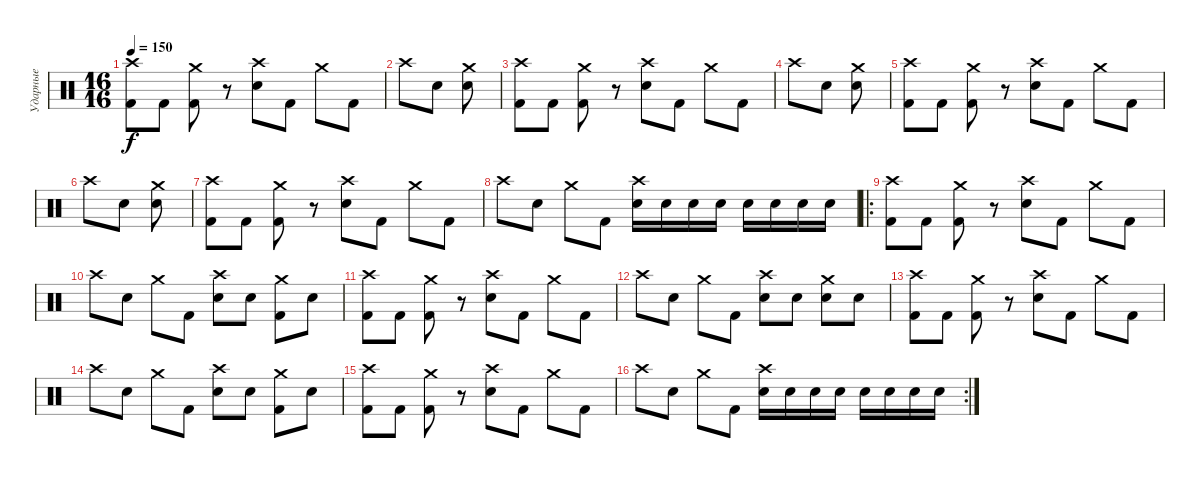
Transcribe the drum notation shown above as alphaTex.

\track ("Ударные" "Ударные") {instrument percussion}
\staff {score}
\articulation defaults
\ts (16 16)
\tempo 150
\clef neutral
\ks c
("Crash high (hit)" "Kick (hit) 2").8{dy f} "Kick (hit) 2".8 ("Crash medium (hit)" "Kick (hit) 2").8 r.8 ("Crash high (hit)" "Electric Snare (hit)").8 "Kick (hit) 2".8 "Crash medium (hit)".8 "Kick (hit) 2".8 |
"Crash high (hit)".8 "Snare (hit) 2".8 ("Crash medium (hit)" "Electric Snare (hit)").8 |
("Crash high (hit)" "Kick (hit) 2").8 "Kick (hit) 2".8 ("Crash medium (hit)" "Kick (hit) 2").8 r.8 ("Crash high (hit)" "Electric Snare (hit)").8 "Kick (hit) 2".8 "Crash medium (hit)".8 "Kick (hit) 2".8 |
"Crash high (hit)".8 "Snare (hit) 2".8 ("Crash medium (hit)" "Electric Snare (hit)").8 |
("Crash high (hit)" "Kick (hit) 2").8 "Kick (hit) 2".8 ("Crash medium (hit)" "Kick (hit) 2").8 r.8 ("Crash high (hit)" "Electric Snare (hit)").8 "Kick (hit) 2".8 "Crash medium (hit)".8 "Kick (hit) 2".8 |
"Crash high (hit)".8 "Snare (hit) 2".8 ("Crash medium (hit)" "Electric Snare (hit)").8 |
("Crash high (hit)" "Kick (hit) 2").8 "Kick (hit) 2".8 ("Crash medium (hit)" "Kick (hit) 2").8 r.8 ("Crash high (hit)" "Electric Snare (hit)").8 "Kick (hit) 2".8 "Crash medium (hit)".8 "Kick (hit) 2".8 |
"Crash high (hit)".8 "Electric Snare (hit)".8 "Crash medium (hit)".8 "Kick (hit) 2".8 ("Crash high (hit)" "Electric Snare (hit)").16 "Electric Snare (hit)".16 "Electric Snare (hit)".16 "Electric Snare (hit)".16 "Electric Snare (hit)".16 "Electric Snare (hit)".16 "Electric Snare (hit)".16 "Electric Snare (hit)".16 |
\ro
("Crash high (hit)" "Kick (hit) 2").8{volume 15} "Kick (hit) 2".8 ("Crash medium (hit)" "Kick (hit) 2").8 r.8 ("Crash high (hit)" "Electric Snare (hit)").8 "Kick (hit) 2".8 "Crash medium (hit)".8 "Kick (hit) 2".8 |
"Crash high (hit)".8 "Snare (hit) 2".8 "Crash medium (hit)".8 "Kick (hit) 2".8 ("Crash high (hit)" "Electric Snare (hit)").8 "Snare (hit) 2".8 ("Crash medium (hit)" "Kick (hit) 2").8 "Electric Snare (hit)".8 |
("Crash high (hit)" "Kick (hit) 2").8 "Kick (hit) 2".8 ("Crash medium (hit)" "Kick (hit) 2").8 r.8 ("Crash high (hit)" "Electric Snare (hit)").8 "Kick (hit) 2".8 "Crash medium (hit)".8 "Kick (hit) 2".8 |
"Crash high (hit)".8 "Electric Snare (hit)".8 "Crash medium (hit)".8 "Kick (hit) 2".8 ("Crash high (hit)" "Electric Snare (hit)").8 "Electric Snare (hit)".8 ("Crash medium (hit)" "Electric Snare (hit)").8 "Electric Snare (hit)".8 |
("Crash high (hit)" "Kick (hit) 2").8 "Kick (hit) 2".8 ("Crash medium (hit)" "Kick (hit) 2").8 r.8 ("Crash high (hit)" "Electric Snare (hit)").8 "Kick (hit) 2".8 "Crash medium (hit)".8 "Kick (hit) 2".8 |
"Crash high (hit)".8 "Snare (hit) 2".8 "Crash medium (hit)".8 "Kick (hit) 2".8 ("Crash high (hit)" "Electric Snare (hit)").8 "Snare (hit) 2".8 ("Crash medium (hit)" "Kick (hit) 2").8 "Electric Snare (hit)".8 |
("Crash high (hit)" "Kick (hit) 2").8 "Kick (hit) 2".8 ("Crash medium (hit)" "Kick (hit) 2").8 r.8 ("Crash high (hit)" "Electric Snare (hit)").8 "Kick (hit) 2".8 "Crash medium (hit)".8 "Kick (hit) 2".8 |
\rc 2 "Crash high (hit)".8 "Electric Snare (hit)".8 "Crash medium (hit)".8 "Kick (hit) 2".8
("Crash high (hit)" "Electric Snare (hit)").16 "Electric Snare (hit)".16 "Electric Snare (hit)".16 "Electric Snare (hit)".16 "Electric Snare (hit)".16 "Electric Snare (hit)".16 "Electric Snare (hit)".16 "Electric Snare (hit)".16
